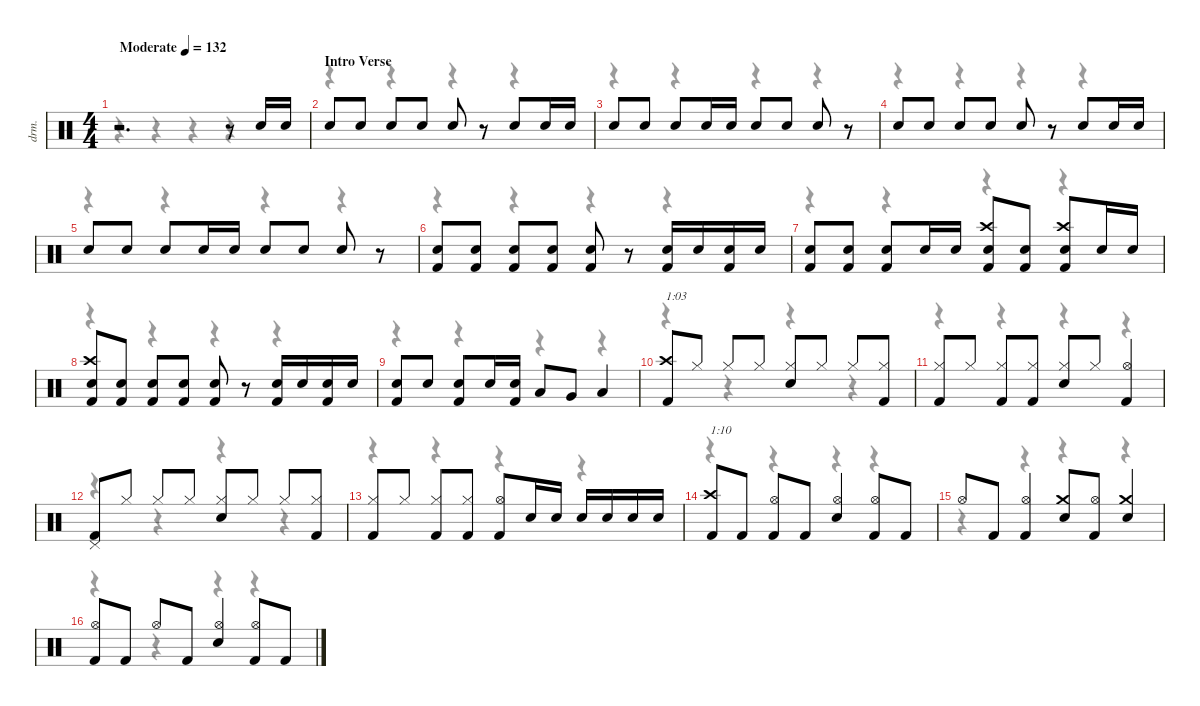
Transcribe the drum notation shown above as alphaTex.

\defaultSystemsLayout 4
\hideDynamics
\bracketExtendMode nobrackets
\otherSystemsTrackNameOrientation horizontal
\track ("Drums" "drm.") {instrument percussion}
\staff {score}
\articulation defaults
\voice
\ts (4 4)
\beaming (8 2 2 2 2)
\tempo (132 "Moderate")
\clef neutral
\ks c
r.2{d dy mp} r.8 "Snare (hit) 2".16 "Snare (hit) 2".16 |
\section ("" "Intro Verse")
"Snare (hit) 2".8{dy f} "Snare (hit) 2".8 "Snare (hit) 2".8 "Snare (hit) 2".8 "Snare (hit) 2".8 r.8 "Snare (hit) 2".8 "Snare (hit) 2".16 "Snare (hit) 2".16 |
"Snare (hit) 2".8 "Snare (hit) 2".8 "Snare (hit) 2".8 "Snare (hit) 2".16{dy mp} "Snare (hit) 2".16 "Snare (hit) 2".8{dy f} "Snare (hit) 2".8 "Snare (hit) 2".8 r.8 |
"Snare (hit) 2".8 "Snare (hit) 2".8 "Snare (hit) 2".8 "Snare (hit) 2".8 "Snare (hit) 2".8 r.8 "Snare (hit) 2".8 "Snare (hit) 2".16 "Snare (hit) 2".16 |
"Snare (hit) 2".8 "Snare (hit) 2".8 "Snare (hit) 2".8 "Snare (hit) 2".16{dy mp} "Snare (hit) 2".16 "Snare (hit) 2".8{dy f} "Snare (hit) 2".8 "Snare (hit) 2".8 r.8 |
("Snare (hit) 2" "Kick (hit) 2").8 ("Snare (hit) 2" "Kick (hit) 2").8 ("Snare (hit) 2" "Kick (hit) 2").8 ("Snare (hit) 2" "Kick (hit) 2").8 ("Snare (hit) 2" "Kick (hit) 2").8 r.8 ("Snare (hit) 2" "Kick (hit) 2").16 "Snare (hit) 2".16 ("Snare (hit) 2" "Kick (hit) 2").16 "Snare (hit) 2".16 |
("Snare (hit) 2" "Kick (hit) 2").8 ("Snare (hit) 2" "Kick (hit) 2").8 ("Snare (hit) 2" "Kick (hit) 2").8 "Snare (hit) 2".16 "Snare (hit) 2".16 ("Crash high (hit)" "Snare (hit) 2" "Kick (hit) 2").8 ("Snare (hit) 2" "Kick (hit) 2").8 ("Crash high (hit)" "Snare (hit) 2" "Kick (hit) 2").8 "Snare (hit) 2".16 "Snare (hit) 2".16 |
("Crash high (hit)" "Snare (hit) 2" "Kick (hit) 2").8 ("Snare (hit) 2" "Kick (hit) 2").8 ("Snare (hit) 2" "Kick (hit) 2").8 ("Snare (hit) 2" "Kick (hit) 2").8 ("Snare (hit) 2" "Kick (hit) 2").8 r.8 ("Snare (hit) 2" "Kick (hit) 2").16 "Snare (hit) 2".16 ("Snare (hit) 2" "Kick (hit) 2").16 "Snare (hit) 2".16 |
("Snare (hit) 2" "Kick (hit) 2").8 "Snare (hit) 2".8 ("Snare (hit) 2" "Kick (hit) 2").8 "Snare (hit) 2".16 ("Snare (hit) 2" "Kick (hit) 2").16 "Low Tom (hit)".8 "Very Low Tom (hit)".8 "Low Floor Tom (hit)".4 |
("Crash high (hit)" "Kick (hit) 2").8{txt "1:03"} "Hi-Hat (closed)".8 "Hi-Hat (closed)".8 "Hi-Hat (closed)".8 ("Hi-Hat (closed)" "Snare (hit) 2").8 "Hi-Hat (closed)".8 "Hi-Hat (closed)".8 ("Hi-Hat (closed)" "Kick (hit) 2").8 |
("Hi-Hat (closed)" "Kick (hit) 2").8 "Hi-Hat (closed)".8 ("Hi-Hat (closed)" "Kick (hit) 2").8 ("Hi-Hat (closed)" "Kick (hit) 2").8 ("Hi-Hat (closed)" "Snare (hit) 2").8 "Hi-Hat (closed)".8 ("Hi-Hat (open)" "Kick (hit) 2").4 |
("Pedal Hi-Hat (hit)" "Kick (hit) 2").8 "Hi-Hat (closed)".8 "Hi-Hat (closed)".8 "Hi-Hat (closed)".8 ("Hi-Hat (closed)" "Snare (hit) 2").8 "Hi-Hat (closed)".8 "Hi-Hat (closed)".8 ("Hi-Hat (closed)" "Kick (hit) 2").8 |
("Hi-Hat (closed)" "Kick (hit) 2").8 "Hi-Hat (closed)".8 ("Hi-Hat (closed)" "Kick (hit) 2").8 ("Hi-Hat (closed)" "Kick (hit) 2").8 ("Hi-Hat (open)" "Kick (hit) 2").8 "Snare (hit) 2".16{dy fff} "Snare (hit) 2".16 "Snare (hit) 2".16 "Snare (hit) 2".16 "Snare (hit) 2".16 "Snare (hit) 2".16 |
("Crash high (hit)" "Kick (hit) 2").8{txt "1:10" dy f} "Kick (hit) 2".8{dy fff} ("Hi-Hat (open)" "Kick (hit) 2").8{dy f} "Kick (hit) 2".8{dy fff} ("Hi-Hat (open)" "Snare (hit) 2").4{dy f} ("Hi-Hat (open)" "Kick (hit) 2").8 "Kick (hit) 2".8{dy fff} |
"Hi-Hat (open)".8{dy f} "Kick (hit) 2".8{dy fff} ("Hi-Hat (open)" "Kick (hit) 2").4{dy f} ("Crash medium (hit)" "Snare (hit) 2").8 ("Hi-Hat (open)" "Kick (hit) 2").8 ("Crash medium (hit)" "Snare (hit) 2").4 |
("Hi-Hat (open)" "Kick (hit) 2").8 "Kick (hit) 2".8{dy fff} "Hi-Hat (open)".8{dy f} "Kick (hit) 2".8{dy fff} ("Hi-Hat (open)" "Snare (hit) 2").4{dy f} ("Hi-Hat (open)" "Kick (hit) 2").8 "Kick (hit) 2".8{dy fff}
\voice
\clef neutral
\ottava regular
\simile none
\ks c
r.4{dy mf} r.4 r.4 r.4 |
r.4 r.4 r.4 r.4 |
r.4 r.4 r.4 r.4 |
r.4 r.4 r.4 r.4 |
r.4 r.4 r.4 r.4 |
r.4 r.4 r.4 r.4 |
r.4 r.4 r.4 r.4 |
r.4 r.4 r.4 r.4 |
r.4 r.4 r.4 r.4 |
r.4 r.4 r.4 r.4 |
r.4 r.4 r.4 r.4 |
r.4 r.4 r.4 r.4 |
r.4 r.4 r.4 r.4 |
r.4 r.4 r.4 r.4 |
r.4 r.4 r.4 r.4 |
r.4 r.4 r.4 r.4
